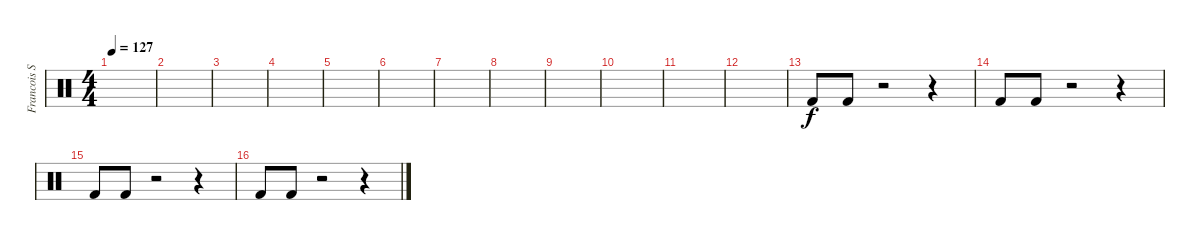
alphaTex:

\track ("Francois Soulier" "Francois S") {instrument percussion}
\staff {score}
\articulation defaults
\ts (4 4)
\tempo 127
\clef neutral
\ks c
|
|
|
|
|
|
|
|
|
|
|
|
"Kick (hit) 2".8 "Kick (hit) 2".8 r.2 r.4 |
"Kick (hit) 2".8 "Kick (hit) 2".8 r.2 r.4 |
"Kick (hit) 2".8 "Kick (hit) 2".8 r.2 r.4 |
"Kick (hit) 2".8 "Kick (hit) 2".8 r.2 r.4
